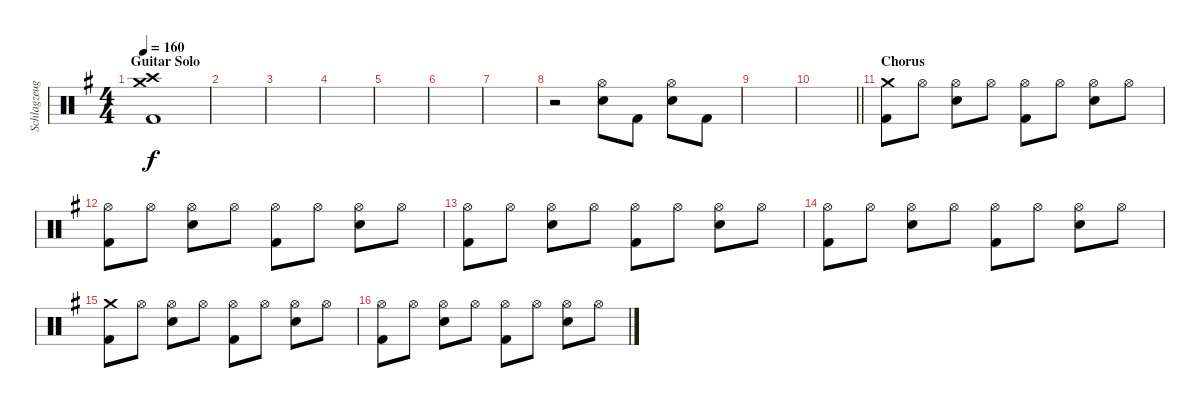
\track ("Schlagzeug" "Schlagzeug") {instrument percussion}
\staff {score}
\articulation defaults
\ts (4 4)
\section ("" "Guitar Solo")
\tempo 160
\clef neutral
\ks g
("Crash high (hit)" "Crash medium (hit)" "Kick (hit) 2").1{dy f} |
|
|
|
|
|
|
r.2 ("Hi-Hat (open)" "Snare (hit) 2").8 "Kick (hit) 2".8 ("Hi-Hat (open)" "Snare (hit) 2").8 "Kick (hit) 2".8 |
|
\barLineRight lightlight
|
\section ("" "Chorus")
("Crash medium (hit)" "Kick (hit) 2").8 "Hi-Hat (open)".8 ("Hi-Hat (open)" "Snare (hit) 2").8 "Hi-Hat (open)".8 ("Hi-Hat (open)" "Kick (hit) 2").8 "Hi-Hat (open)".8 ("Hi-Hat (open)" "Snare (hit) 2").8 "Hi-Hat (open)".8 |
("Hi-Hat (open)" "Kick (hit) 2").8 "Hi-Hat (open)".8 ("Hi-Hat (open)" "Snare (hit) 2").8 "Hi-Hat (open)".8 ("Hi-Hat (open)" "Kick (hit) 2").8 "Hi-Hat (open)".8 ("Hi-Hat (open)" "Snare (hit) 2").8 "Hi-Hat (open)".8 |
("Hi-Hat (open)" "Kick (hit) 2").8 "Hi-Hat (open)".8 ("Hi-Hat (open)" "Snare (hit) 2").8 "Hi-Hat (open)".8 ("Hi-Hat (open)" "Kick (hit) 2").8 "Hi-Hat (open)".8 ("Hi-Hat (open)" "Snare (hit) 2").8 "Hi-Hat (open)".8 |
("Hi-Hat (open)" "Kick (hit) 2").8 "Hi-Hat (open)".8 ("Hi-Hat (open)" "Snare (hit) 2").8 "Hi-Hat (open)".8 ("Hi-Hat (open)" "Kick (hit) 2").8 "Hi-Hat (open)".8 ("Hi-Hat (open)" "Snare (hit) 2").8 "Hi-Hat (open)".8 |
("Crash medium (hit)" "Kick (hit) 2").8 "Hi-Hat (open)".8 ("Hi-Hat (open)" "Snare (hit) 2").8 "Hi-Hat (open)".8 ("Hi-Hat (open)" "Kick (hit) 2").8 "Hi-Hat (open)".8 ("Hi-Hat (open)" "Snare (hit) 2").8 "Hi-Hat (open)".8 |
("Hi-Hat (open)" "Kick (hit) 2").8 "Hi-Hat (open)".8 ("Hi-Hat (open)" "Snare (hit) 2").8 "Hi-Hat (open)".8 ("Hi-Hat (open)" "Kick (hit) 2").8 "Hi-Hat (open)".8 ("Hi-Hat (open)" "Snare (hit) 2").8 "Hi-Hat (open)".8
